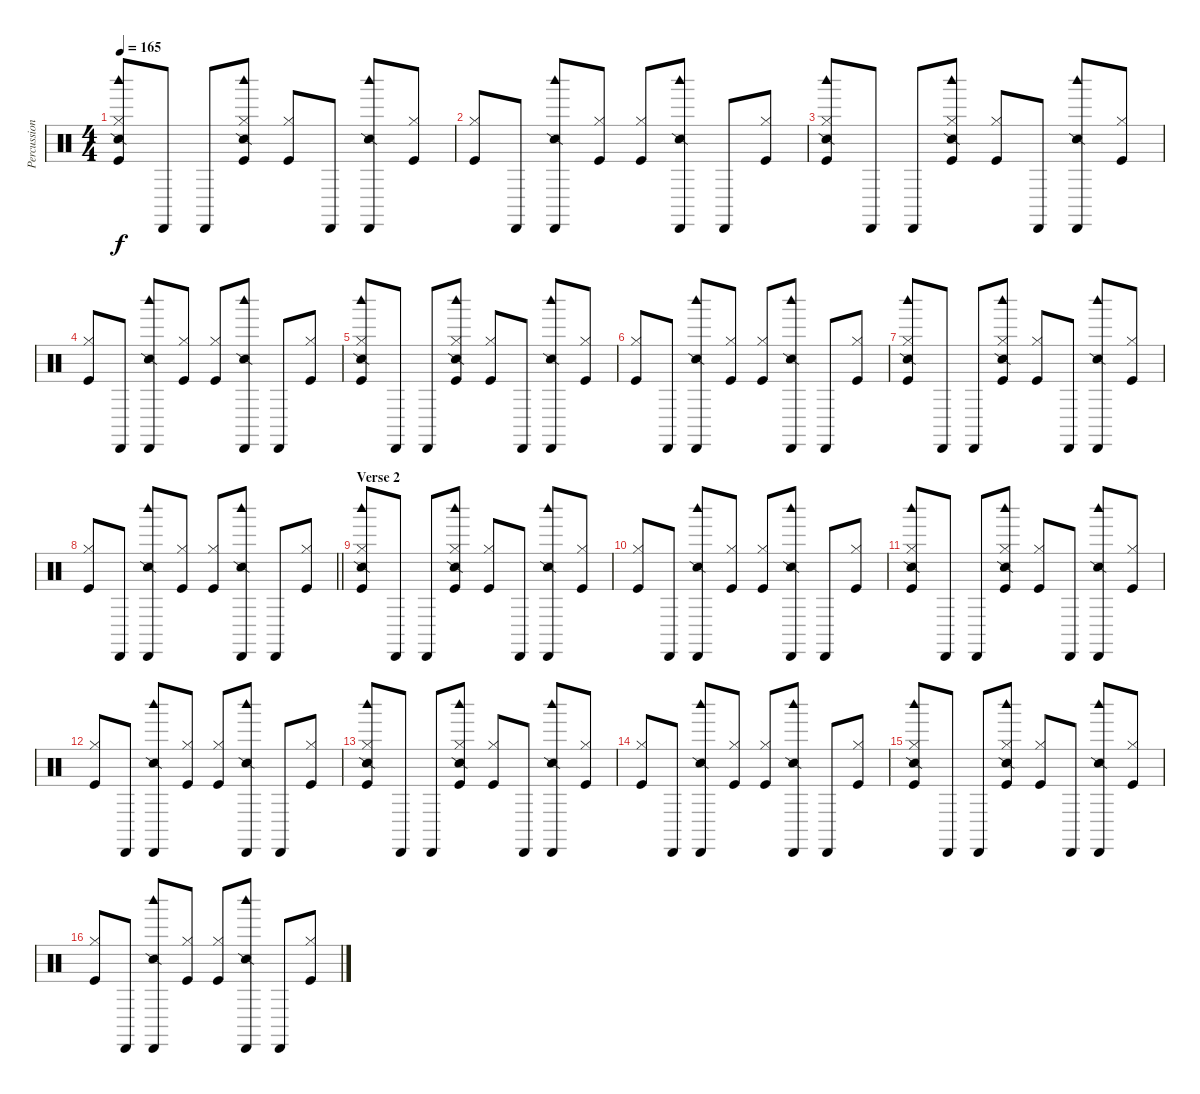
\track ("Percussion" "Percussion") {instrument percussion}
\staff {score}
\articulation defaults
\ts (4 4)
\tempo 165
\clef neutral
\ks c
("Snare (side stick) 2" "Hi-Hat (closed)" "Woodblock high (hit)" "Kick (hit)").8{dy f} "Cabasa (hit)".8 "Cabasa (hit)".8 ("Snare (side stick) 2" "Hi-Hat (closed)" "Woodblock high (hit)" "Kick (hit)").8 ("Hi-Hat (closed)" "Kick (hit)").8 "Cabasa (hit)".8 ("Snare (side stick) 2" "Cabasa (hit)" "Woodblock high (hit)").8 ("Hi-Hat (closed)" "Kick (hit)").8 |
("Hi-Hat (closed)" "Kick (hit)").8 "Cabasa (hit)".8 ("Snare (side stick) 2" "Cabasa (hit)" "Woodblock high (hit)").8 ("Hi-Hat (closed)" "Kick (hit)").8 ("Hi-Hat (closed)" "Kick (hit)").8 ("Snare (side stick) 2" "Cabasa (hit)" "Woodblock high (hit)").8 "Cabasa (hit)".8 ("Hi-Hat (closed)" "Kick (hit)").8 |
("Snare (side stick) 2" "Hi-Hat (closed)" "Woodblock high (hit)" "Kick (hit)").8 "Cabasa (hit)".8 "Cabasa (hit)".8 ("Snare (side stick) 2" "Hi-Hat (closed)" "Woodblock high (hit)" "Kick (hit)").8 ("Hi-Hat (closed)" "Kick (hit)").8 "Cabasa (hit)".8 ("Snare (side stick) 2" "Cabasa (hit)" "Woodblock high (hit)").8 ("Hi-Hat (closed)" "Kick (hit)").8 |
("Hi-Hat (closed)" "Kick (hit)").8 "Cabasa (hit)".8 ("Snare (side stick) 2" "Cabasa (hit)" "Woodblock high (hit)").8 ("Hi-Hat (closed)" "Kick (hit)").8 ("Hi-Hat (closed)" "Kick (hit)").8 ("Snare (side stick) 2" "Cabasa (hit)" "Woodblock high (hit)").8 "Cabasa (hit)".8 ("Hi-Hat (closed)" "Kick (hit)").8 |
("Snare (side stick) 2" "Hi-Hat (closed)" "Woodblock high (hit)" "Kick (hit)").8 "Cabasa (hit)".8 "Cabasa (hit)".8 ("Snare (side stick) 2" "Hi-Hat (closed)" "Woodblock high (hit)" "Kick (hit)").8 ("Hi-Hat (closed)" "Kick (hit)").8 "Cabasa (hit)".8 ("Snare (side stick) 2" "Cabasa (hit)" "Woodblock high (hit)").8 ("Hi-Hat (closed)" "Kick (hit)").8 |
("Hi-Hat (closed)" "Kick (hit)").8 "Cabasa (hit)".8 ("Snare (side stick) 2" "Cabasa (hit)" "Woodblock high (hit)").8 ("Hi-Hat (closed)" "Kick (hit)").8 ("Hi-Hat (closed)" "Kick (hit)").8 ("Snare (side stick) 2" "Cabasa (hit)" "Woodblock high (hit)").8 "Cabasa (hit)".8 ("Hi-Hat (closed)" "Kick (hit)").8 |
("Snare (side stick) 2" "Hi-Hat (closed)" "Woodblock high (hit)" "Kick (hit)").8 "Cabasa (hit)".8 "Cabasa (hit)".8 ("Snare (side stick) 2" "Hi-Hat (closed)" "Woodblock high (hit)" "Kick (hit)").8 ("Hi-Hat (closed)" "Kick (hit)").8 "Cabasa (hit)".8 ("Snare (side stick) 2" "Cabasa (hit)" "Woodblock high (hit)").8 ("Hi-Hat (closed)" "Kick (hit)").8 |
\barLineRight lightlight
("Hi-Hat (closed)" "Kick (hit)").8 "Cabasa (hit)".8 ("Snare (side stick) 2" "Cabasa (hit)" "Woodblock high (hit)").8 ("Hi-Hat (closed)" "Kick (hit)").8 ("Hi-Hat (closed)" "Kick (hit)").8 ("Snare (side stick) 2" "Cabasa (hit)" "Woodblock high (hit)").8 "Cabasa (hit)".8 ("Hi-Hat (closed)" "Kick (hit)").8 |
\section ("" "Verse 2")
("Snare (side stick) 2" "Hi-Hat (closed)" "Woodblock high (hit)" "Kick (hit)").8 "Cabasa (hit)".8 "Cabasa (hit)".8 ("Snare (side stick) 2" "Hi-Hat (closed)" "Woodblock high (hit)" "Kick (hit)").8 ("Hi-Hat (closed)" "Kick (hit)").8 "Cabasa (hit)".8 ("Snare (side stick) 2" "Cabasa (hit)" "Woodblock high (hit)").8 ("Hi-Hat (closed)" "Kick (hit)").8 |
("Hi-Hat (closed)" "Kick (hit)").8 "Cabasa (hit)".8 ("Snare (side stick) 2" "Cabasa (hit)" "Woodblock high (hit)").8 ("Hi-Hat (closed)" "Kick (hit)").8 ("Hi-Hat (closed)" "Kick (hit)").8 ("Snare (side stick) 2" "Cabasa (hit)" "Woodblock high (hit)").8 "Cabasa (hit)".8 ("Hi-Hat (closed)" "Kick (hit)").8 |
("Snare (side stick) 2" "Hi-Hat (closed)" "Woodblock high (hit)" "Kick (hit)").8 "Cabasa (hit)".8 "Cabasa (hit)".8 ("Snare (side stick) 2" "Hi-Hat (closed)" "Woodblock high (hit)" "Kick (hit)").8 ("Hi-Hat (closed)" "Kick (hit)").8 "Cabasa (hit)".8 ("Snare (side stick) 2" "Cabasa (hit)" "Woodblock high (hit)").8 ("Hi-Hat (closed)" "Kick (hit)").8 |
("Hi-Hat (closed)" "Kick (hit)").8 "Cabasa (hit)".8 ("Snare (side stick) 2" "Cabasa (hit)" "Woodblock high (hit)").8 ("Hi-Hat (closed)" "Kick (hit)").8 ("Hi-Hat (closed)" "Kick (hit)").8 ("Snare (side stick) 2" "Cabasa (hit)" "Woodblock high (hit)").8 "Cabasa (hit)".8 ("Hi-Hat (closed)" "Kick (hit)").8 |
("Snare (side stick) 2" "Hi-Hat (closed)" "Woodblock high (hit)" "Kick (hit)").8 "Cabasa (hit)".8 "Cabasa (hit)".8 ("Snare (side stick) 2" "Hi-Hat (closed)" "Woodblock high (hit)" "Kick (hit)").8 ("Hi-Hat (closed)" "Kick (hit)").8 "Cabasa (hit)".8 ("Snare (side stick) 2" "Cabasa (hit)" "Woodblock high (hit)").8 ("Hi-Hat (closed)" "Kick (hit)").8 |
("Hi-Hat (closed)" "Kick (hit)").8 "Cabasa (hit)".8 ("Snare (side stick) 2" "Cabasa (hit)" "Woodblock high (hit)").8 ("Hi-Hat (closed)" "Kick (hit)").8 ("Hi-Hat (closed)" "Kick (hit)").8 ("Snare (side stick) 2" "Cabasa (hit)" "Woodblock high (hit)").8 "Cabasa (hit)".8 ("Hi-Hat (closed)" "Kick (hit)").8 |
("Snare (side stick) 2" "Hi-Hat (closed)" "Woodblock high (hit)" "Kick (hit)").8 "Cabasa (hit)".8 "Cabasa (hit)".8 ("Snare (side stick) 2" "Hi-Hat (closed)" "Woodblock high (hit)" "Kick (hit)").8 ("Hi-Hat (closed)" "Kick (hit)").8 "Cabasa (hit)".8 ("Snare (side stick) 2" "Cabasa (hit)" "Woodblock high (hit)").8 ("Hi-Hat (closed)" "Kick (hit)").8 |
("Hi-Hat (closed)" "Kick (hit)").8 "Cabasa (hit)".8 ("Snare (side stick) 2" "Cabasa (hit)" "Woodblock high (hit)").8 ("Hi-Hat (closed)" "Kick (hit)").8 ("Hi-Hat (closed)" "Kick (hit)").8 ("Snare (side stick) 2" "Cabasa (hit)" "Woodblock high (hit)").8 "Cabasa (hit)".8 ("Hi-Hat (closed)" "Kick (hit)").8
